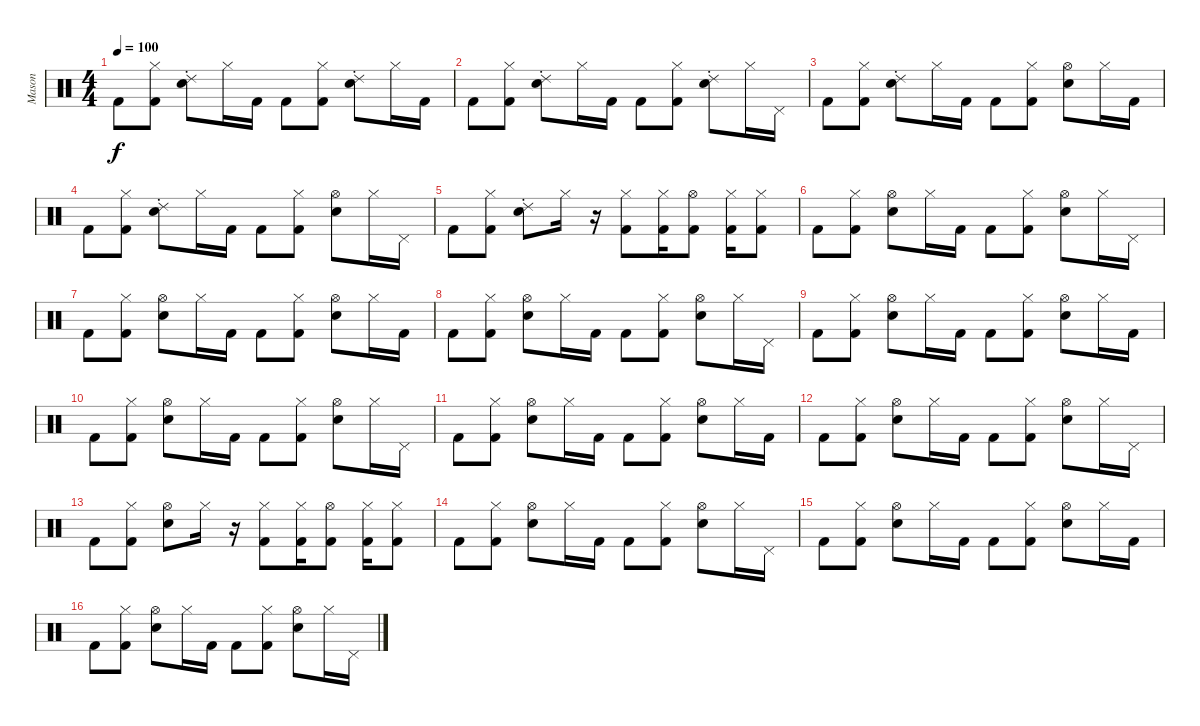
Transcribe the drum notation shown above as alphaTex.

\track ("Mason" "Mason") {instrument percussion}
\staff {score}
\articulation defaults
\ts (4 4)
\tempo 100
\clef neutral
\ks c "Kick (hit) 2".8{dy f}
("Hi-Hat (closed)" "Kick (hit) 2").8 ("Hand Clap (hit)" "Ride (choke) 2").8 "Hi-Hat (closed)".16 "Kick (hit) 2".16 "Kick (hit) 2".8 ("Hi-Hat (closed)" "Kick (hit) 2").8 ("Hand Clap (hit)" "Ride (choke) 2").8 "Hi-Hat (closed)".16 "Kick (hit) 2".16 |
"Kick (hit) 2".8 ("Hi-Hat (closed)" "Kick (hit) 2").8 ("Hand Clap (hit)" "Ride (choke) 2").8 "Hi-Hat (closed)".16 "Kick (hit) 2".16 "Kick (hit) 2".8 ("Hi-Hat (closed)" "Kick (hit) 2").8 ("Hand Clap (hit)" "Ride (choke) 2").8 "Hi-Hat (closed)".16 "Pedal Hi-Hat (hit)".16 |
"Kick (hit) 2".8 ("Hi-Hat (closed)" "Kick (hit) 2").8 ("Hand Clap (hit)" "Ride (choke) 2").8 "Hi-Hat (closed)".16 "Kick (hit) 2".16 "Kick (hit) 2".8 ("Hi-Hat (closed)" "Kick (hit) 2").8 ("Hand Clap (hit)" "Hi-Hat (open)").8 "Hi-Hat (closed)".16 "Kick (hit) 2".16 |
"Kick (hit) 2".8 ("Hi-Hat (closed)" "Kick (hit) 2").8 ("Hand Clap (hit)" "Ride (choke) 2").8 "Hi-Hat (closed)".16 "Kick (hit) 2".16 "Kick (hit) 2".8 ("Hi-Hat (closed)" "Kick (hit) 2").8 ("Hand Clap (hit)" "Hi-Hat (open)").8 "Hi-Hat (closed)".16 "Pedal Hi-Hat (hit)".16 |
"Kick (hit) 2".8 ("Hi-Hat (closed)" "Kick (hit) 2").8 ("Hand Clap (hit)" "Ride (choke) 2").8 "Hi-Hat (closed)".16 r.16 ("Hi-Hat (closed)" "Kick (hit) 2").8 ("Hi-Hat (closed)" "Kick (hit) 2").16 ("Hi-Hat (open)" "Kick (hit) 2").8 ("Hi-Hat (closed)" "Kick (hit) 2").16 ("Hi-Hat (closed)" "Kick (hit) 2").8 |
"Kick (hit) 2".8 ("Hi-Hat (closed)" "Kick (hit) 2").8 ("Hand Clap (hit)" "Hi-Hat (open)").8 "Hi-Hat (closed)".16 "Kick (hit) 2".16 "Kick (hit) 2".8 ("Hi-Hat (closed)" "Kick (hit) 2").8 ("Hand Clap (hit)" "Hi-Hat (open)").8 "Hi-Hat (closed)".16 "Pedal Hi-Hat (hit)".16 |
"Kick (hit) 2".8 ("Hi-Hat (closed)" "Kick (hit) 2").8 ("Hand Clap (hit)" "Hi-Hat (open)").8 "Hi-Hat (closed)".16 "Kick (hit) 2".16 "Kick (hit) 2".8 ("Hi-Hat (closed)" "Kick (hit) 2").8 ("Hand Clap (hit)" "Hi-Hat (open)").8 "Hi-Hat (closed)".16 "Kick (hit) 2".16 |
"Kick (hit) 2".8 ("Hi-Hat (closed)" "Kick (hit) 2").8 ("Hand Clap (hit)" "Hi-Hat (open)").8 "Hi-Hat (closed)".16 "Kick (hit) 2".16 "Kick (hit) 2".8 ("Hi-Hat (closed)" "Kick (hit) 2").8 ("Hand Clap (hit)" "Hi-Hat (open)").8 "Hi-Hat (closed)".16 "Pedal Hi-Hat (hit)".16 |
"Kick (hit) 2".8 ("Hi-Hat (closed)" "Kick (hit) 2").8 ("Hand Clap (hit)" "Hi-Hat (open)").8 "Hi-Hat (closed)".16 "Kick (hit) 2".16 "Kick (hit) 2".8 ("Hi-Hat (closed)" "Kick (hit) 2").8 ("Hand Clap (hit)" "Hi-Hat (open)").8 "Hi-Hat (closed)".16 "Kick (hit) 2".16 |
"Kick (hit) 2".8 ("Hi-Hat (closed)" "Kick (hit) 2").8 ("Hand Clap (hit)" "Hi-Hat (open)").8 "Hi-Hat (closed)".16 "Kick (hit) 2".16 "Kick (hit) 2".8 ("Hi-Hat (closed)" "Kick (hit) 2").8 ("Hand Clap (hit)" "Hi-Hat (open)").8 "Hi-Hat (closed)".16 "Pedal Hi-Hat (hit)".16 |
"Kick (hit) 2".8 ("Hi-Hat (closed)" "Kick (hit) 2").8 ("Hand Clap (hit)" "Hi-Hat (open)").8 "Hi-Hat (closed)".16 "Kick (hit) 2".16 "Kick (hit) 2".8 ("Hi-Hat (closed)" "Kick (hit) 2").8 ("Hand Clap (hit)" "Hi-Hat (open)").8 "Hi-Hat (closed)".16 "Kick (hit) 2".16 |
"Kick (hit) 2".8 ("Hi-Hat (closed)" "Kick (hit) 2").8 ("Hand Clap (hit)" "Hi-Hat (open)").8 "Hi-Hat (closed)".16 "Kick (hit) 2".16 "Kick (hit) 2".8 ("Hi-Hat (closed)" "Kick (hit) 2").8 ("Hand Clap (hit)" "Hi-Hat (open)").8 "Hi-Hat (closed)".16 "Pedal Hi-Hat (hit)".16 |
"Kick (hit) 2".8 ("Hi-Hat (closed)" "Kick (hit) 2").8 ("Hand Clap (hit)" "Hi-Hat (open)").8 "Hi-Hat (closed)".16 r.16 ("Hi-Hat (closed)" "Kick (hit) 2").8 ("Hi-Hat (closed)" "Kick (hit) 2").16 ("Hi-Hat (open)" "Kick (hit) 2").8 ("Hi-Hat (closed)" "Kick (hit) 2").16 ("Hi-Hat (closed)" "Kick (hit) 2").8 |
"Kick (hit) 2".8 ("Hi-Hat (closed)" "Kick (hit) 2").8 ("Hand Clap (hit)" "Hi-Hat (open)").8 "Hi-Hat (closed)".16 "Kick (hit) 2".16 "Kick (hit) 2".8 ("Hi-Hat (closed)" "Kick (hit) 2").8 ("Hand Clap (hit)" "Hi-Hat (open)").8 "Hi-Hat (closed)".16 "Pedal Hi-Hat (hit)".16 |
"Kick (hit) 2".8 ("Hi-Hat (closed)" "Kick (hit) 2").8 ("Hand Clap (hit)" "Hi-Hat (open)").8 "Hi-Hat (closed)".16 "Kick (hit) 2".16 "Kick (hit) 2".8 ("Hi-Hat (closed)" "Kick (hit) 2").8 ("Hand Clap (hit)" "Hi-Hat (open)").8 "Hi-Hat (closed)".16 "Kick (hit) 2".16 |
"Kick (hit) 2".8 ("Hi-Hat (closed)" "Kick (hit) 2").8 ("Hand Clap (hit)" "Hi-Hat (open)").8 "Hi-Hat (closed)".16 "Kick (hit) 2".16 "Kick (hit) 2".8 ("Hi-Hat (closed)" "Kick (hit) 2").8 ("Hand Clap (hit)" "Hi-Hat (open)").8 "Hi-Hat (closed)".16 "Pedal Hi-Hat (hit)".16
